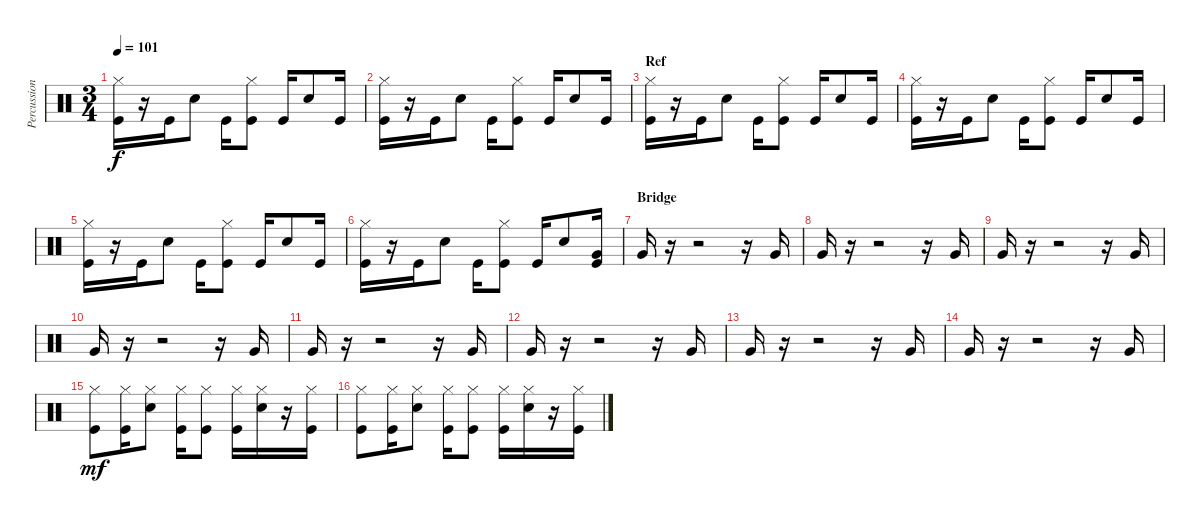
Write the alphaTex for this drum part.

\track ("Percussion" "Percussion") {instrument percussion}
\staff {score}
\articulation defaults
\ts (3 4)
\tempo 101
\clef neutral
\ks c
("Hi-Hat (closed)" "Kick (hit)").16{dy f} r.16 "Kick (hit)".16 "Electric Snare (hit)".8 "Kick (hit)".16 ("Hi-Hat (closed)" "Kick (hit)").8 "Kick (hit)".16 "Electric Snare (hit)".8 "Kick (hit)".16 |
("Hi-Hat (closed)" "Kick (hit)").16 r.16 "Kick (hit)".16 "Electric Snare (hit)".8 "Kick (hit)".16 ("Hi-Hat (closed)" "Kick (hit)").8 "Kick (hit)".16 "Electric Snare (hit)".8 "Kick (hit)".16 |
\section ("" "Ref")
("Hi-Hat (closed)" "Kick (hit)").16 r.16 "Kick (hit)".16 "Electric Snare (hit)".8 "Kick (hit)".16 ("Hi-Hat (closed)" "Kick (hit)").8 "Kick (hit)".16 "Electric Snare (hit)".8 "Kick (hit)".16 |
("Hi-Hat (closed)" "Kick (hit)").16 r.16 "Kick (hit)".16 "Electric Snare (hit)".8 "Kick (hit)".16 ("Hi-Hat (closed)" "Kick (hit)").8 "Kick (hit)".16 "Electric Snare (hit)".8 "Kick (hit)".16 |
("Hi-Hat (closed)" "Kick (hit)").16 r.16 "Kick (hit)".16 "Electric Snare (hit)".8 "Kick (hit)".16 ("Hi-Hat (closed)" "Kick (hit)").8 "Kick (hit)".16 "Electric Snare (hit)".8 "Kick (hit)".16 |
("Hi-Hat (closed)" "Kick (hit)").16 r.16 "Kick (hit)".16 "Electric Snare (hit)".8 "Kick (hit)".16 ("Hi-Hat (closed)" "Kick (hit)").8 "Kick (hit)".16 "Electric Snare (hit)".8 ("Very Low Tom (hit)" "Kick (hit)").16 |
\section ("" "Bridge")
"Very Low Tom (hit)".16 r.16 r.2 r.16 "Very Low Tom (hit)".16 |
"Very Low Tom (hit)".16 r.16 r.2 r.16 "Very Low Tom (hit)".16 |
"Very Low Tom (hit)".16 r.16 r.2 r.16 "Very Low Tom (hit)".16 |
"Very Low Tom (hit)".16 r.16 r.2 r.16 "Very Low Tom (hit)".16 |
"Very Low Tom (hit)".16 r.16 r.2 r.16 "Very Low Tom (hit)".16 |
"Very Low Tom (hit)".16 r.16 r.2 r.16 "Very Low Tom (hit)".16 |
"Very Low Tom (hit)".16 r.16 r.2 r.16 "Very Low Tom (hit)".16 |
"Very Low Tom (hit)".16 r.16 r.2 r.16 "Very Low Tom (hit)".16 |
("Hi-Hat (closed)" "Kick (hit)").8{dy mf} ("Hi-Hat (closed)" "Kick (hit)").16 ("Hi-Hat (closed)" "Snare (hit) 2").8 ("Hi-Hat (closed)" "Kick (hit)").16 ("Hi-Hat (closed)" "Kick (hit)").8 ("Hi-Hat (closed)" "Kick (hit)").16 ("Hi-Hat (closed)" "Snare (hit) 2").16 r.16 ("Hi-Hat (closed)" "Kick (hit)").16 |
("Hi-Hat (closed)" "Kick (hit)").8 ("Hi-Hat (closed)" "Kick (hit)").16 ("Hi-Hat (closed)" "Snare (hit) 2").8 ("Hi-Hat (closed)" "Kick (hit)").16 ("Hi-Hat (closed)" "Kick (hit)").8 ("Hi-Hat (closed)" "Kick (hit)").16 ("Hi-Hat (closed)" "Snare (hit) 2").16 r.16 ("Hi-Hat (closed)" "Kick (hit)").16
